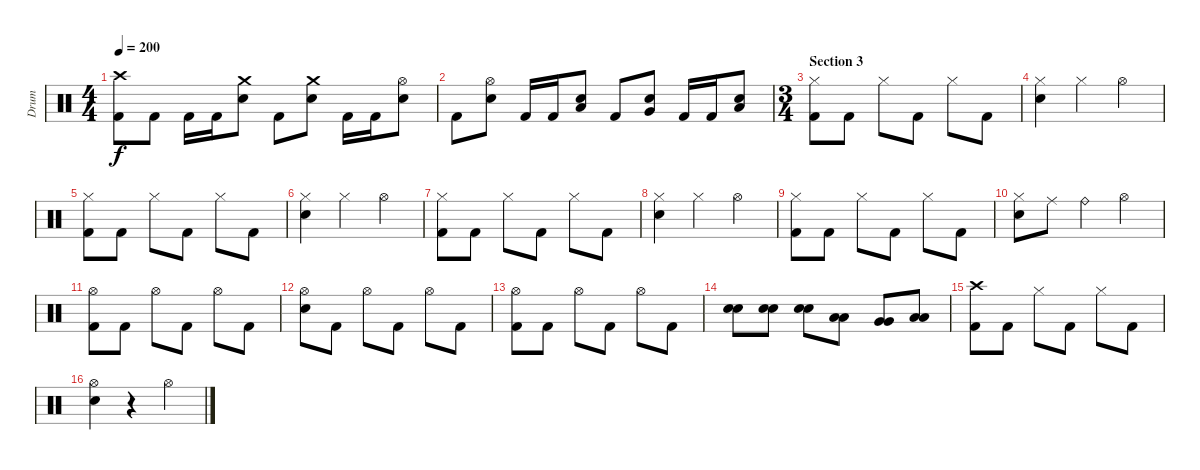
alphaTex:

\track ("Drum" "Drum") {instrument percussion}
\staff {score}
\articulation defaults
\ts (4 4)
\tempo 200
\clef neutral
\ks c
("Crash high (hit)" "Kick (hit) 2").8{dy f} "Kick (hit) 2".8 "Kick (hit) 2".16 "Kick (hit) 2".16 ("Crash medium (hit)" "Electric Snare (hit)").8 "Kick (hit) 2".8 ("Crash medium (hit)" "Electric Snare (hit)").8 "Kick (hit) 2".16 "Kick (hit) 2".16 ("Hi-Hat (open)" "Electric Snare (hit)").8 |
"Kick (hit) 2".8 ("Hi-Hat (open)" "Electric Snare (hit)").8 "Kick (hit) 2".16 "Kick (hit) 2".16 ("Low Tom (hit)" "Electric Snare (hit)").8 "Kick (hit) 2".8 ("Very Low Tom (hit)" "Electric Snare (hit)").8 "Kick (hit) 2".16 "Kick (hit) 2".16 ("Low Floor Tom (hit)" "Electric Snare (hit)").8 |
\ts (3 4)
\section ("" "Section 3")
("Hi-Hat (closed)" "Kick (hit) 2").8 "Kick (hit) 2".8 "Hi-Hat (closed)".8 "Kick (hit) 2".8 "Hi-Hat (closed)".8 "Kick (hit) 2".8 |
("Hi-Hat (closed)" "Electric Snare (hit)").4 "Hi-Hat (closed)".4 "Hi-Hat (open)".4 |
("Hi-Hat (closed)" "Kick (hit) 2").8 "Kick (hit) 2".8 "Hi-Hat (closed)".8 "Kick (hit) 2".8 "Hi-Hat (closed)".8 "Kick (hit) 2".8 |
("Hi-Hat (closed)" "Electric Snare (hit)").4 "Hi-Hat (closed)".4 "Hi-Hat (open)".4 |
("Hi-Hat (closed)" "Kick (hit) 2").8 "Kick (hit) 2".8 "Hi-Hat (closed)".8 "Kick (hit) 2".8 "Hi-Hat (closed)".8 "Kick (hit) 2".8 |
("Hi-Hat (closed)" "Electric Snare (hit)").4 "Hi-Hat (closed)".4 "Hi-Hat (open)".4 |
("Hi-Hat (closed)" "Kick (hit) 2").8 "Kick (hit) 2".8 "Hi-Hat (closed)".8 "Kick (hit) 2".8 "Hi-Hat (closed)".8 "Kick (hit) 2".8 |
("Hi-Hat (closed)" "Electric Snare (hit)").8 "Ride (middle)".8 "Ride (bell)".4 "Hi-Hat (open)".4 |
("Hi-Hat (open)" "Kick (hit) 2").8 "Kick (hit) 2".8 "Hi-Hat (open)".8 "Kick (hit) 2".8 "Hi-Hat (open)".8 "Kick (hit) 2".8 |
("Hi-Hat (open)" "Electric Snare (hit)").8 "Kick (hit) 2".8 "Hi-Hat (open)".8 "Kick (hit) 2".8 "Hi-Hat (open)".8 "Kick (hit) 2".8 |
("Hi-Hat (open)" "Kick (hit) 2").8 "Kick (hit) 2".8 "Hi-Hat (open)".8 "Kick (hit) 2".8 "Hi-Hat (open)".8 "Kick (hit) 2".8 |
("Electric Snare (hit)" "Electric Snare (hit)").8 ("Electric Snare (hit)" "Electric Snare (hit)").8 ("Electric Snare (hit)" "Electric Snare (hit)").8 ("Low Tom (hit)" "Low Tom (hit)").8 ("Very Low Tom (hit)" "Very Low Tom (hit)").8 ("Low Floor Tom (hit)" "Low Floor Tom (hit)").8 |
("Crash high (hit)" "Kick (hit) 2").8 "Kick (hit) 2".8 "Hi-Hat (closed)".8 "Kick (hit) 2".8 "Hi-Hat (closed)".8 "Kick (hit) 2".8 |
("Hi-Hat (open)" "Electric Snare (hit)").4 r.4 "Hi-Hat (open)".4
